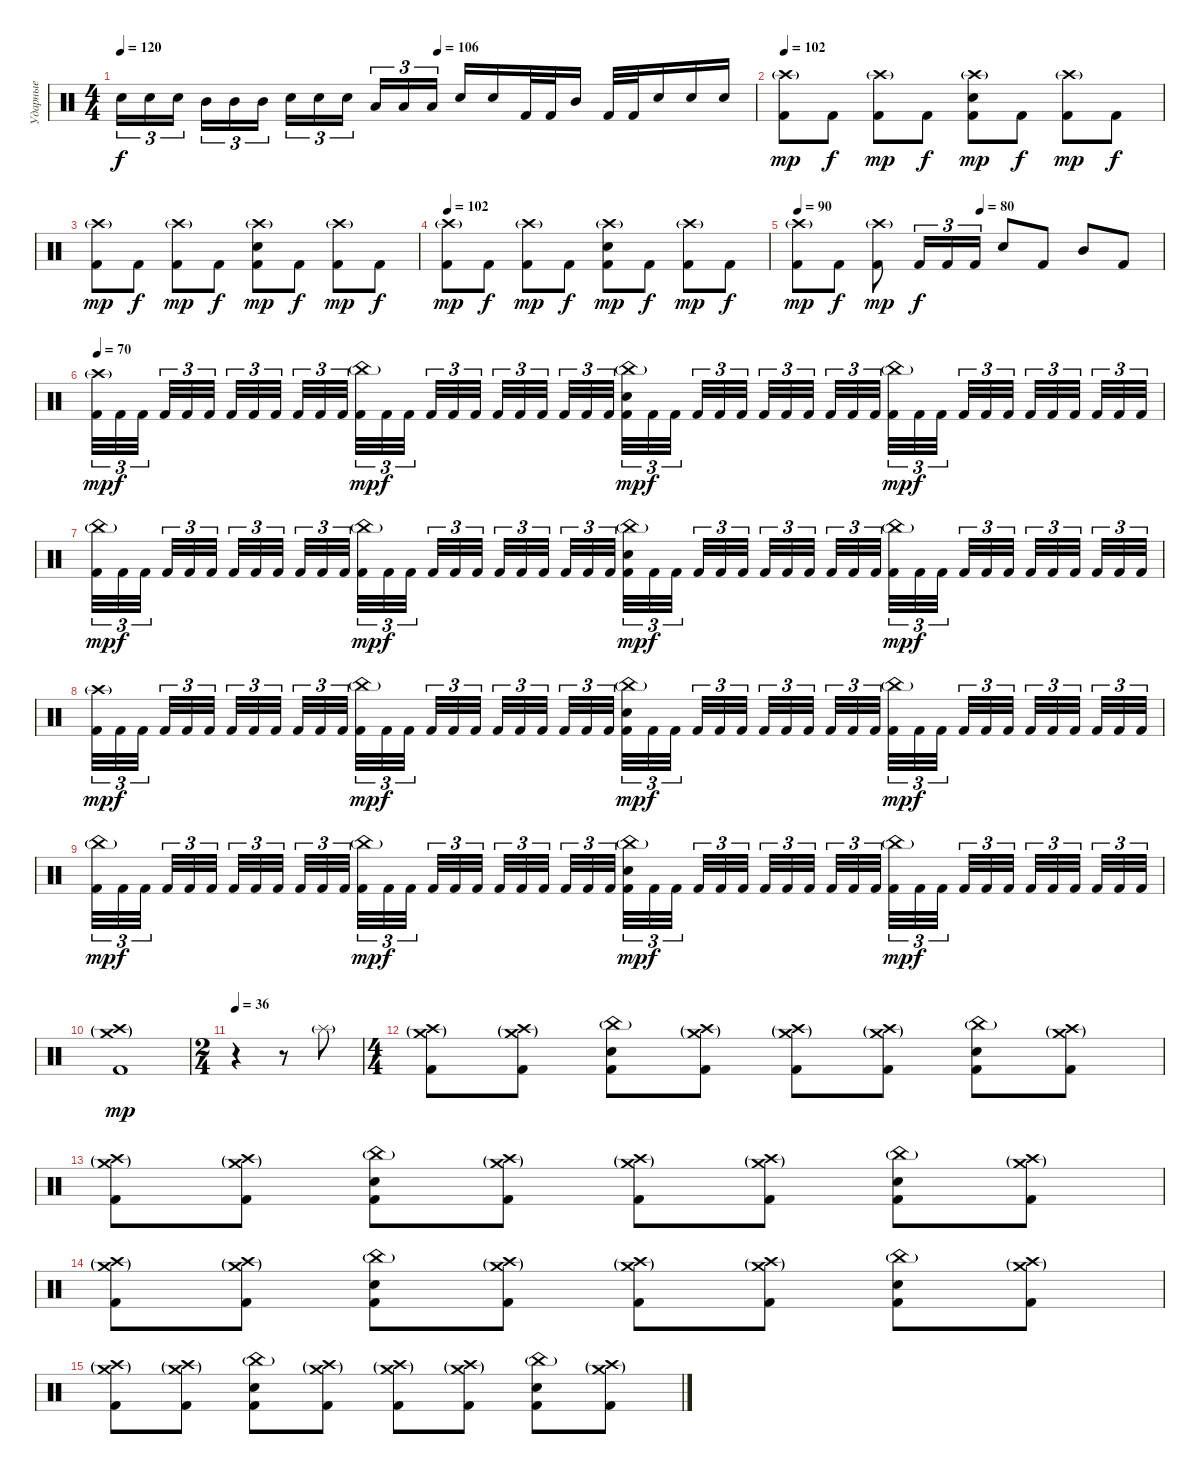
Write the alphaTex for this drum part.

\track ("Ударные" "Ударные") {instrument percussion}
\staff {score}
\articulation defaults
\ts (4 4)
\tempo 120
\tempo (106 0.5)
\clef neutral
\ks c "Electric Snare (hit)".16{tu (3 2) dy f} "Electric Snare (hit)".16{tu (3 2)} "Electric Snare (hit)".16{tu (3 2)} "Mid Tom (hit)".16{tu (3 2)} "Mid Tom (hit)".16{tu (3 2)} "Mid Tom (hit)".16{tu (3 2)} "Electric Snare (hit)".16{tu (3 2)} "Electric Snare (hit)".16{tu (3 2)} "Electric Snare (hit)".16{tu (3 2)} "Low Tom (hit)".16{tu (3 2)} "Low Tom (hit)".16{tu (3 2)} "Low Tom (hit)".16{tu (3 2)} "Electric Snare (hit)".16 "Electric Snare (hit)".16 "Kick (hit) 2".32 "Kick (hit) 2".32 "Mid Tom (hit)".16 "Kick (hit) 2".32 "Kick (hit) 2".32 "Electric Snare (hit)".16 "Electric Snare (hit)".16 "Electric Snare (hit)".16
|
\tempo 102
("Crash high (hit)"{g} "Kick (hit) 2").8{dy mp} "Kick (hit) 2".8{dy f} ("Crash high (hit)"{g} "Kick (hit) 2").8{dy mp} "Kick (hit) 2".8{dy f} ("Crash high (hit)"{g} "Electric Snare (hit)" "Kick (hit) 2").8{dy mp} "Kick (hit) 2".8{dy f} ("Crash high (hit)"{g} "Kick (hit) 2").8{dy mp} "Kick (hit) 2".8{dy f} |
("Crash high (hit)"{g} "Kick (hit) 2").8{dy mp} "Kick (hit) 2".8{dy f} ("Crash high (hit)"{g} "Kick (hit) 2").8{dy mp} "Kick (hit) 2".8{dy f} ("Crash high (hit)"{g} "Electric Snare (hit)" "Kick (hit) 2").8{dy mp} "Kick (hit) 2".8{dy f} ("Crash high (hit)"{g} "Kick (hit) 2").8{dy mp} "Kick (hit) 2".8{dy f} |
\tempo 102
("Crash high (hit)"{g} "Kick (hit) 2").8{dy mp} "Kick (hit) 2".8{dy f} ("Crash high (hit)"{g} "Kick (hit) 2").8{dy mp} "Kick (hit) 2".8{dy f} ("Crash high (hit)"{g} "Electric Snare (hit)" "Kick (hit) 2").8{dy mp} "Kick (hit) 2".8{dy f} ("Crash high (hit)"{g} "Kick (hit) 2").8{dy mp} "Kick (hit) 2".8{dy f} |
\tempo 90
\tempo (80 0.5)
("Crash high (hit)"{g} "Kick (hit) 2").8{dy mp} "Kick (hit) 2".8{dy f} ("Crash high (hit)"{g} "Kick (hit) 2").8{dy mp} "Kick (hit) 2".16{tu (3 2) dy f} "Kick (hit) 2".16{tu (3 2)} "Kick (hit) 2".16{tu (3 2)} "Electric Snare (hit)".8 "Kick (hit) 2".8 "Mid Tom (hit)".8 "Kick (hit) 2".8 |
\tempo 70
("Crash high (hit)"{g} "Kick (hit) 2").32{tu (3 2) dy mp} "Kick (hit) 2".32{tu (3 2) dy f} "Kick (hit) 2".32{tu (3 2)} "Kick (hit) 2".32{tu (3 2)} "Kick (hit) 2".32{tu (3 2)} "Kick (hit) 2".32{tu (3 2)} "Kick (hit) 2".32{tu (3 2)} "Kick (hit) 2".32{tu (3 2)} "Kick (hit) 2".32{tu (3 2)} "Kick (hit) 2".32{tu (3 2)} "Kick (hit) 2".32{tu (3 2)} "Kick (hit) 2".32{tu (3 2)} ("China (hit)"{g} "Kick (hit) 2").32{tu (3 2) dy mp} "Kick (hit) 2".32{tu (3 2) dy f} "Kick (hit) 2".32{tu (3 2)} "Kick (hit) 2".32{tu (3 2)} "Kick (hit) 2".32{tu (3 2)} "Kick (hit) 2".32{tu (3 2)} "Kick (hit) 2".32{tu (3 2)} "Kick (hit) 2".32{tu (3 2)} "Kick (hit) 2".32{tu (3 2)} "Kick (hit) 2".32{tu (3 2)} "Kick (hit) 2".32{tu (3 2)} "Kick (hit) 2".32{tu (3 2)} ("China (hit)"{g} "Electric Snare (hit)" "Kick (hit) 2").32{tu (3 2) dy mp} "Kick (hit) 2".32{tu (3 2) dy f} "Kick (hit) 2".32{tu (3 2)} "Kick (hit) 2".32{tu (3 2)} "Kick (hit) 2".32{tu (3 2)} "Kick (hit) 2".32{tu (3 2)} "Kick (hit) 2".32{tu (3 2)} "Kick (hit) 2".32{tu (3 2)} "Kick (hit) 2".32{tu (3 2)} "Kick (hit) 2".32{tu (3 2)} "Kick (hit) 2".32{tu (3 2)} "Kick (hit) 2".32{tu (3 2)} ("China (hit)"{g} "Kick (hit) 2").32{tu (3 2) dy mp} "Kick (hit) 2".32{tu (3 2) dy f} "Kick (hit) 2".32{tu (3 2)} "Kick (hit) 2".32{tu (3 2)} "Kick (hit) 2".32{tu (3 2)} "Kick (hit) 2".32{tu (3 2)} "Kick (hit) 2".32{tu (3 2)} "Kick (hit) 2".32{tu (3 2)} "Kick (hit) 2".32{tu (3 2)} "Kick (hit) 2".32{tu (3 2)} "Kick (hit) 2".32{tu (3 2)} "Kick (hit) 2".32{tu (3 2)} |
("China (hit)"{g} "Kick (hit) 2").32{tu (3 2) dy mp} "Kick (hit) 2".32{tu (3 2) dy f} "Kick (hit) 2".32{tu (3 2)} "Kick (hit) 2".32{tu (3 2)} "Kick (hit) 2".32{tu (3 2)} "Kick (hit) 2".32{tu (3 2)} "Kick (hit) 2".32{tu (3 2)} "Kick (hit) 2".32{tu (3 2)} "Kick (hit) 2".32{tu (3 2)} "Kick (hit) 2".32{tu (3 2)} "Kick (hit) 2".32{tu (3 2)} "Kick (hit) 2".32{tu (3 2)} ("China (hit)"{g} "Kick (hit) 2").32{tu (3 2) dy mp} "Kick (hit) 2".32{tu (3 2) dy f} "Kick (hit) 2".32{tu (3 2)} "Kick (hit) 2".32{tu (3 2)} "Kick (hit) 2".32{tu (3 2)} "Kick (hit) 2".32{tu (3 2)} "Kick (hit) 2".32{tu (3 2)} "Kick (hit) 2".32{tu (3 2)} "Kick (hit) 2".32{tu (3 2)} "Kick (hit) 2".32{tu (3 2)} "Kick (hit) 2".32{tu (3 2)} "Kick (hit) 2".32{tu (3 2)} ("China (hit)"{g} "Electric Snare (hit)" "Kick (hit) 2").32{tu (3 2) dy mp} "Kick (hit) 2".32{tu (3 2) dy f} "Kick (hit) 2".32{tu (3 2)} "Kick (hit) 2".32{tu (3 2)} "Kick (hit) 2".32{tu (3 2)} "Kick (hit) 2".32{tu (3 2)} "Kick (hit) 2".32{tu (3 2)} "Kick (hit) 2".32{tu (3 2)} "Kick (hit) 2".32{tu (3 2)} "Kick (hit) 2".32{tu (3 2)} "Kick (hit) 2".32{tu (3 2)} "Kick (hit) 2".32{tu (3 2)} ("China (hit)"{g} "Kick (hit) 2").32{tu (3 2) dy mp} "Kick (hit) 2".32{tu (3 2) dy f} "Kick (hit) 2".32{tu (3 2)} "Kick (hit) 2".32{tu (3 2)} "Kick (hit) 2".32{tu (3 2)} "Kick (hit) 2".32{tu (3 2)} "Kick (hit) 2".32{tu (3 2)} "Kick (hit) 2".32{tu (3 2)} "Kick (hit) 2".32{tu (3 2)} "Kick (hit) 2".32{tu (3 2)} "Kick (hit) 2".32{tu (3 2)} "Kick (hit) 2".32{tu (3 2)} |
("Crash high (hit)"{g} "Kick (hit) 2").32{tu (3 2) dy mp} "Kick (hit) 2".32{tu (3 2) dy f} "Kick (hit) 2".32{tu (3 2)} "Kick (hit) 2".32{tu (3 2)} "Kick (hit) 2".32{tu (3 2)} "Kick (hit) 2".32{tu (3 2)} "Kick (hit) 2".32{tu (3 2)} "Kick (hit) 2".32{tu (3 2)} "Kick (hit) 2".32{tu (3 2)} "Kick (hit) 2".32{tu (3 2)} "Kick (hit) 2".32{tu (3 2)} "Kick (hit) 2".32{tu (3 2)} ("China (hit)"{g} "Kick (hit) 2").32{tu (3 2) dy mp} "Kick (hit) 2".32{tu (3 2) dy f} "Kick (hit) 2".32{tu (3 2)} "Kick (hit) 2".32{tu (3 2)} "Kick (hit) 2".32{tu (3 2)} "Kick (hit) 2".32{tu (3 2)} "Kick (hit) 2".32{tu (3 2)} "Kick (hit) 2".32{tu (3 2)} "Kick (hit) 2".32{tu (3 2)} "Kick (hit) 2".32{tu (3 2)} "Kick (hit) 2".32{tu (3 2)} "Kick (hit) 2".32{tu (3 2)} ("China (hit)"{g} "Electric Snare (hit)" "Kick (hit) 2").32{tu (3 2) dy mp} "Kick (hit) 2".32{tu (3 2) dy f} "Kick (hit) 2".32{tu (3 2)} "Kick (hit) 2".32{tu (3 2)} "Kick (hit) 2".32{tu (3 2)} "Kick (hit) 2".32{tu (3 2)} "Kick (hit) 2".32{tu (3 2)} "Kick (hit) 2".32{tu (3 2)} "Kick (hit) 2".32{tu (3 2)} "Kick (hit) 2".32{tu (3 2)} "Kick (hit) 2".32{tu (3 2)} "Kick (hit) 2".32{tu (3 2)} ("China (hit)"{g} "Kick (hit) 2").32{tu (3 2) dy mp} "Kick (hit) 2".32{tu (3 2) dy f} "Kick (hit) 2".32{tu (3 2)} "Kick (hit) 2".32{tu (3 2)} "Kick (hit) 2".32{tu (3 2)} "Kick (hit) 2".32{tu (3 2)} "Kick (hit) 2".32{tu (3 2)} "Kick (hit) 2".32{tu (3 2)} "Kick (hit) 2".32{tu (3 2)} "Kick (hit) 2".32{tu (3 2)} "Kick (hit) 2".32{tu (3 2)} "Kick (hit) 2".32{tu (3 2)} |
("China (hit)"{g} "Kick (hit) 2").32{tu (3 2) dy mp} "Kick (hit) 2".32{tu (3 2) dy f} "Kick (hit) 2".32{tu (3 2)} "Kick (hit) 2".32{tu (3 2)} "Kick (hit) 2".32{tu (3 2)} "Kick (hit) 2".32{tu (3 2)} "Kick (hit) 2".32{tu (3 2)} "Kick (hit) 2".32{tu (3 2)} "Kick (hit) 2".32{tu (3 2)} "Kick (hit) 2".32{tu (3 2)} "Kick (hit) 2".32{tu (3 2)} "Kick (hit) 2".32{tu (3 2)} ("China (hit)"{g} "Kick (hit) 2").32{tu (3 2) dy mp} "Kick (hit) 2".32{tu (3 2) dy f} "Kick (hit) 2".32{tu (3 2)} "Kick (hit) 2".32{tu (3 2)} "Kick (hit) 2".32{tu (3 2)} "Kick (hit) 2".32{tu (3 2)} "Kick (hit) 2".32{tu (3 2)} "Kick (hit) 2".32{tu (3 2)} "Kick (hit) 2".32{tu (3 2)} "Kick (hit) 2".32{tu (3 2)} "Kick (hit) 2".32{tu (3 2)} "Kick (hit) 2".32{tu (3 2)} ("China (hit)"{g} "Electric Snare (hit)" "Kick (hit) 2").32{tu (3 2) dy mp} "Kick (hit) 2".32{tu (3 2) dy f} "Kick (hit) 2".32{tu (3 2)} "Kick (hit) 2".32{tu (3 2)} "Kick (hit) 2".32{tu (3 2)} "Kick (hit) 2".32{tu (3 2)} "Kick (hit) 2".32{tu (3 2)} "Kick (hit) 2".32{tu (3 2)} "Kick (hit) 2".32{tu (3 2)} "Kick (hit) 2".32{tu (3 2)} "Kick (hit) 2".32{tu (3 2)} "Kick (hit) 2".32{tu (3 2)} ("China (hit)"{g} "Kick (hit) 2").32{tu (3 2) dy mp} "Kick (hit) 2".32{tu (3 2) dy f} "Kick (hit) 2".32{tu (3 2)} "Kick (hit) 2".32{tu (3 2)} "Kick (hit) 2".32{tu (3 2)} "Kick (hit) 2".32{tu (3 2)} "Kick (hit) 2".32{tu (3 2)} "Kick (hit) 2".32{tu (3 2)} "Kick (hit) 2".32{tu (3 2)} "Kick (hit) 2".32{tu (3 2)} "Kick (hit) 2".32{tu (3 2)} "Kick (hit) 2".32{tu (3 2)} |
("Crash high (hit)"{g} "Crash medium (hit)"{g} "Kick (hit) 2").1{dy mp} |
\ts (2 4)
\tempo 36
r.4 r.8 "Splash (hit)"{g}.8 |
\ts (4 4)
("Crash high (hit)"{g} "Crash medium (hit)"{g} "Kick (hit) 2").8 ("Crash high (hit)"{g} "Crash medium (hit)"{g} "Kick (hit) 2").8 ("China (hit)"{g} "Electric Snare (hit)" "Kick (hit) 2").8 ("Crash high (hit)"{g} "Crash medium (hit)"{g} "Kick (hit) 2").8 ("Crash high (hit)"{g} "Crash medium (hit)"{g} "Kick (hit) 2").8 ("Crash high (hit)"{g} "Crash medium (hit)"{g} "Kick (hit) 2").8 ("China (hit)"{g} "Electric Snare (hit)" "Kick (hit) 2").8 ("Crash high (hit)"{g} "Crash medium (hit)"{g} "Kick (hit) 2").8 |
("Crash high (hit)"{g} "Crash medium (hit)"{g} "Kick (hit) 2").8 ("Crash high (hit)"{g} "Crash medium (hit)"{g} "Kick (hit) 2").8 ("China (hit)"{g} "Electric Snare (hit)" "Kick (hit) 2").8 ("Crash high (hit)"{g} "Crash medium (hit)"{g} "Kick (hit) 2").8 ("Crash high (hit)"{g} "Crash medium (hit)"{g} "Kick (hit) 2").8 ("Crash high (hit)"{g} "Crash medium (hit)"{g} "Kick (hit) 2").8 ("China (hit)"{g} "Electric Snare (hit)" "Kick (hit) 2").8 ("Crash high (hit)"{g} "Crash medium (hit)"{g} "Kick (hit) 2").8 |
("Crash high (hit)"{g} "Crash medium (hit)"{g} "Kick (hit) 2").8 ("Crash high (hit)"{g} "Crash medium (hit)"{g} "Kick (hit) 2").8 ("China (hit)"{g} "Electric Snare (hit)" "Kick (hit) 2").8 ("Crash high (hit)"{g} "Crash medium (hit)"{g} "Kick (hit) 2").8 ("Crash high (hit)"{g} "Crash medium (hit)"{g} "Kick (hit) 2").8 ("Crash high (hit)"{g} "Crash medium (hit)"{g} "Kick (hit) 2").8 ("China (hit)"{g} "Electric Snare (hit)" "Kick (hit) 2").8 ("Crash high (hit)"{g} "Crash medium (hit)"{g} "Kick (hit) 2").8 |
("Crash high (hit)"{g} "Crash medium (hit)"{g} "Kick (hit) 2").8 ("Crash high (hit)"{g} "Crash medium (hit)"{g} "Kick (hit) 2").8 ("China (hit)"{g} "Electric Snare (hit)" "Kick (hit) 2").8 ("Crash high (hit)"{g} "Crash medium (hit)"{g} "Kick (hit) 2").8 ("Crash high (hit)"{g} "Crash medium (hit)"{g} "Kick (hit) 2").8 ("Crash high (hit)"{g} "Crash medium (hit)"{g} "Kick (hit) 2").8 ("China (hit)"{g} "Electric Snare (hit)" "Kick (hit) 2").8 ("Crash high (hit)"{g} "Crash medium (hit)"{g} "Kick (hit) 2").8
